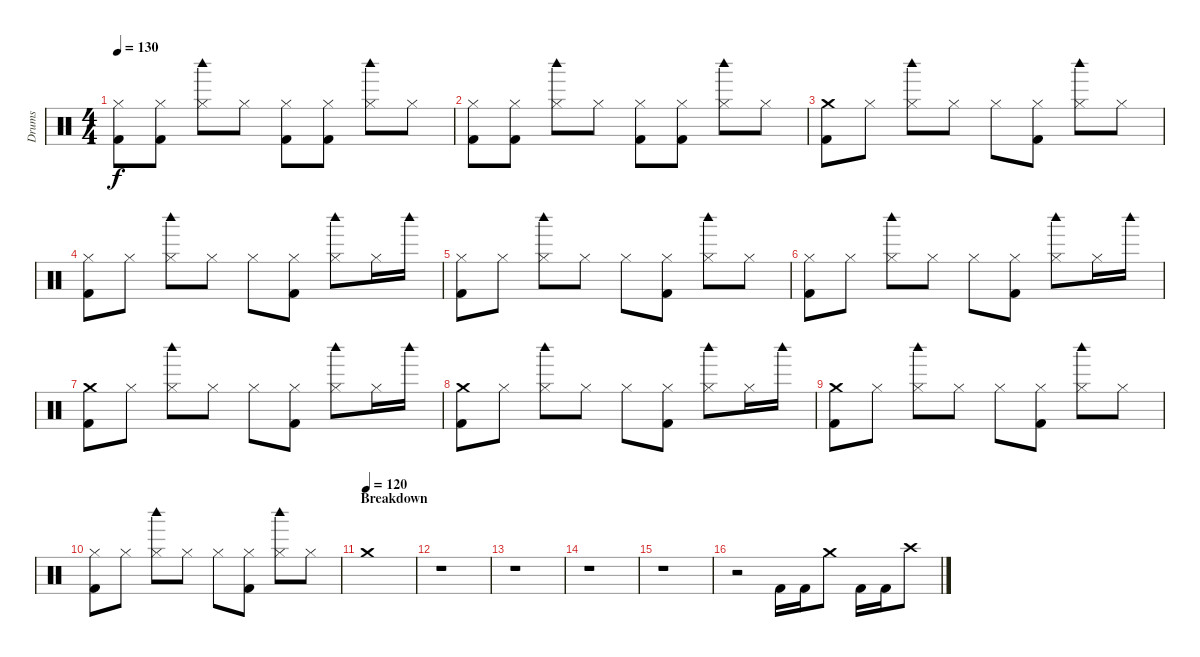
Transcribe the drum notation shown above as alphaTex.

\track ("Drums" "Drums") {instrument percussion}
\staff {score}
\articulation defaults
\ts (4 4)
\tempo 130
\clef neutral
\ks c
("Hi-Hat (closed)" "Kick (hit) 2").8{dy f} ("Hi-Hat (closed)" "Kick (hit) 2").8 ("Hi-Hat (closed)" "Woodblock high (hit)").8 "Hi-Hat (closed)".8 ("Hi-Hat (closed)" "Kick (hit) 2").8 ("Hi-Hat (closed)" "Kick (hit) 2").8 ("Hi-Hat (closed)" "Woodblock high (hit)").8 "Hi-Hat (closed)".8 |
("Hi-Hat (closed)" "Kick (hit) 2").8 ("Hi-Hat (closed)" "Kick (hit) 2").8 ("Hi-Hat (closed)" "Woodblock high (hit)").8 "Hi-Hat (closed)".8 ("Hi-Hat (closed)" "Kick (hit) 2").8 ("Hi-Hat (closed)" "Kick (hit) 2").8 ("Hi-Hat (closed)" "Woodblock high (hit)").8 "Hi-Hat (closed)".8 |
("Crash medium (hit)" "Kick (hit) 2").8 "Hi-Hat (closed)".8 ("Hi-Hat (closed)" "Woodblock high (hit)").8 "Hi-Hat (closed)".8 "Hi-Hat (closed)".8 ("Hi-Hat (closed)" "Kick (hit) 2").8 ("Hi-Hat (closed)" "Woodblock high (hit)").8 "Hi-Hat (closed)".8 |
("Hi-Hat (closed)" "Kick (hit) 2").8 "Hi-Hat (closed)".8 ("Hi-Hat (closed)" "Woodblock high (hit)").8 "Hi-Hat (closed)".8 "Hi-Hat (closed)".8 ("Hi-Hat (closed)" "Kick (hit) 2").8 ("Hi-Hat (closed)" "Woodblock high (hit)").8 "Hi-Hat (closed)".16 "Woodblock high (hit)".16 |
("Hi-Hat (closed)" "Kick (hit) 2").8 "Hi-Hat (closed)".8 ("Hi-Hat (closed)" "Woodblock high (hit)").8 "Hi-Hat (closed)".8 "Hi-Hat (closed)".8 ("Hi-Hat (closed)" "Kick (hit) 2").8 ("Hi-Hat (closed)" "Woodblock high (hit)").8 "Hi-Hat (closed)".8 |
("Hi-Hat (closed)" "Kick (hit) 2").8 "Hi-Hat (closed)".8 ("Hi-Hat (closed)" "Woodblock high (hit)").8 "Hi-Hat (closed)".8 "Hi-Hat (closed)".8 ("Hi-Hat (closed)" "Kick (hit) 2").8 ("Hi-Hat (closed)" "Woodblock high (hit)").8 "Hi-Hat (closed)".16 "Woodblock high (hit)".16 |
("Crash medium (hit)" "Kick (hit) 2").8 "Hi-Hat (closed)".8 ("Hi-Hat (closed)" "Woodblock high (hit)").8 "Hi-Hat (closed)".8 "Hi-Hat (closed)".8 ("Hi-Hat (closed)" "Kick (hit) 2").8 ("Hi-Hat (closed)" "Woodblock high (hit)").8 "Hi-Hat (closed)".16 "Woodblock high (hit)".16 |
("Crash medium (hit)" "Kick (hit) 2").8 "Hi-Hat (closed)".8 ("Hi-Hat (closed)" "Woodblock high (hit)").8 "Hi-Hat (closed)".8 "Hi-Hat (closed)".8 ("Hi-Hat (closed)" "Kick (hit) 2").8 ("Hi-Hat (closed)" "Woodblock high (hit)").8 "Hi-Hat (closed)".16 "Woodblock high (hit)".16 |
("Crash medium (hit)" "Kick (hit) 2").8 "Hi-Hat (closed)".8 ("Hi-Hat (closed)" "Woodblock high (hit)").8 "Hi-Hat (closed)".8 "Hi-Hat (closed)".8 ("Hi-Hat (closed)" "Kick (hit) 2").8 ("Hi-Hat (closed)" "Woodblock high (hit)").8 "Hi-Hat (closed)".8 |
("Hi-Hat (closed)" "Kick (hit) 2").8 "Hi-Hat (closed)".8 ("Hi-Hat (closed)" "Woodblock high (hit)").8 "Hi-Hat (closed)".8 "Hi-Hat (closed)".8 ("Hi-Hat (closed)" "Kick (hit) 2").8 ("Hi-Hat (closed)" "Woodblock high (hit)").8 "Hi-Hat (closed)".8 |
\section ("" "Breakdown")
\tempo (120)
"Crash medium (hit)".1 |
r.1 |
r.1 |
r.1 |
r.1 |
r.2 "Kick (hit) 2".16 "Kick (hit) 2".16 "Crash medium (hit)".8 "Kick (hit) 2".16 "Kick (hit) 2".16 "Crash high (hit)".8
